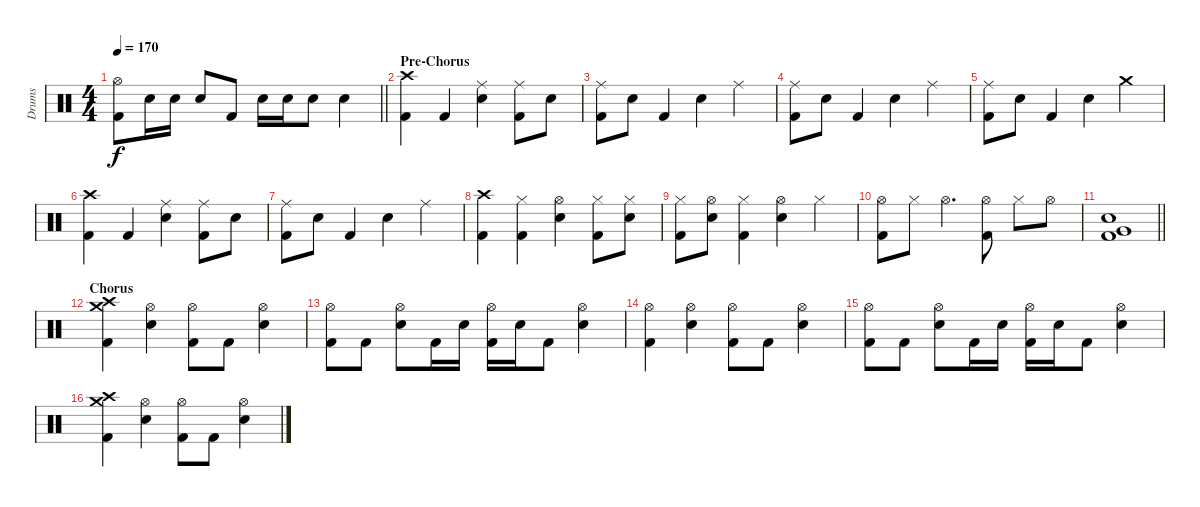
\track ("Drums" "Drums") {instrument percussion}
\staff {score}
\articulation defaults
\ts (4 4)
\tempo 170
\clef neutral
\barLineRight lightlight
\ks c
("Hi-Hat (open)" "Kick (hit) 2").8{dy f} "Electric Snare (hit)".16 "Electric Snare (hit)".16 "Electric Snare (hit)".8 "Kick (hit) 2".8 "Electric Snare (hit)".16 "Electric Snare (hit)".16 "Electric Snare (hit)".8 "Electric Snare (hit)".4 |
\section ("" "Pre-Chorus")
("Kick (hit) 2" "Crash high (hit)").4 "Kick (hit) 2".4 ("Electric Snare (hit)" "Ride (middle)").4 ("Kick (hit) 2" "Ride (middle)").8 "Electric Snare (hit)".8 |
("Kick (hit) 2" "Ride (middle)").8 "Electric Snare (hit)".8 "Kick (hit) 2".4 "Electric Snare (hit)".4 "Ride (middle)".4 |
("Kick (hit) 2" "Ride (middle)").8 "Electric Snare (hit)".8 "Kick (hit) 2".4 "Electric Snare (hit)".4 "Ride (middle)".4 |
("Kick (hit) 2" "Ride (middle)").8 "Electric Snare (hit)".8 "Kick (hit) 2".4 "Electric Snare (hit)".4 "Crash medium (hit)".4 |
("Kick (hit) 2" "Crash high (hit)").4 "Kick (hit) 2".4 ("Electric Snare (hit)" "Ride (middle)").4 ("Kick (hit) 2" "Ride (middle)").8 "Electric Snare (hit)".8 |
("Kick (hit) 2" "Ride (middle)").8 "Electric Snare (hit)".8 "Kick (hit) 2".4 "Electric Snare (hit)".4 "Ride (middle)".4 |
("Kick (hit) 2" "Crash high (hit)").4 ("Kick (hit) 2" "Hi-Hat (closed)").4 ("Electric Snare (hit)" "Hi-Hat (open)").4 ("Kick (hit) 2" "Hi-Hat (closed)").8 ("Electric Snare (hit)" "Hi-Hat (closed)").8 |
("Kick (hit) 2" "Hi-Hat (closed)").8 ("Electric Snare (hit)" "Hi-Hat (open)").8 ("Kick (hit) 2" "Hi-Hat (closed)").4 ("Electric Snare (hit)" "Hi-Hat (open)").4 "Hi-Hat (closed)".4 |
("Hi-Hat (open)" "Kick (hit) 2").8 "Hi-Hat (closed)".8 "Hi-Hat (open)".4{d} ("Hi-Hat (open)" "Kick (hit) 2").8 "Hi-Hat (closed)".8 "Hi-Hat (open)".8 |
\barLineRight lightlight
("Very Low Tom (hit)" "Kick (hit) 2" "Electric Snare (hit)").1 |
\section ("" "Chorus")
("Kick (hit) 2" "Crash medium (hit)" "Crash high (hit)").4 ("Electric Snare (hit)" "Hi-Hat (open)").4 ("Kick (hit) 2" "Hi-Hat (open)").8 "Kick (hit) 2".8 ("Electric Snare (hit)" "Hi-Hat (open)").4 |
("Kick (hit) 2" "Hi-Hat (open)").8 "Kick (hit) 2".8 ("Electric Snare (hit)" "Hi-Hat (open)").8 "Kick (hit) 2".16 "Electric Snare (hit)".16 ("Kick (hit) 2" "Hi-Hat (open)").16 "Electric Snare (hit)".16 "Kick (hit) 2".8 ("Electric Snare (hit)" "Hi-Hat (open)").4 |
("Kick (hit) 2" "Hi-Hat (open)").4 ("Electric Snare (hit)" "Hi-Hat (open)").4 ("Kick (hit) 2" "Hi-Hat (open)").8 "Kick (hit) 2".8 ("Electric Snare (hit)" "Hi-Hat (open)").4 |
("Kick (hit) 2" "Hi-Hat (open)").8 "Kick (hit) 2".8 ("Electric Snare (hit)" "Hi-Hat (open)").8 "Kick (hit) 2".16 "Electric Snare (hit)".16 ("Kick (hit) 2" "Hi-Hat (open)").16 "Electric Snare (hit)".16 "Kick (hit) 2".8 ("Electric Snare (hit)" "Hi-Hat (open)").4 |
("Kick (hit) 2" "Crash medium (hit)" "Crash high (hit)").4 ("Electric Snare (hit)" "Hi-Hat (open)").4 ("Kick (hit) 2" "Hi-Hat (open)").8 "Kick (hit) 2".8 ("Electric Snare (hit)" "Hi-Hat (open)").4
